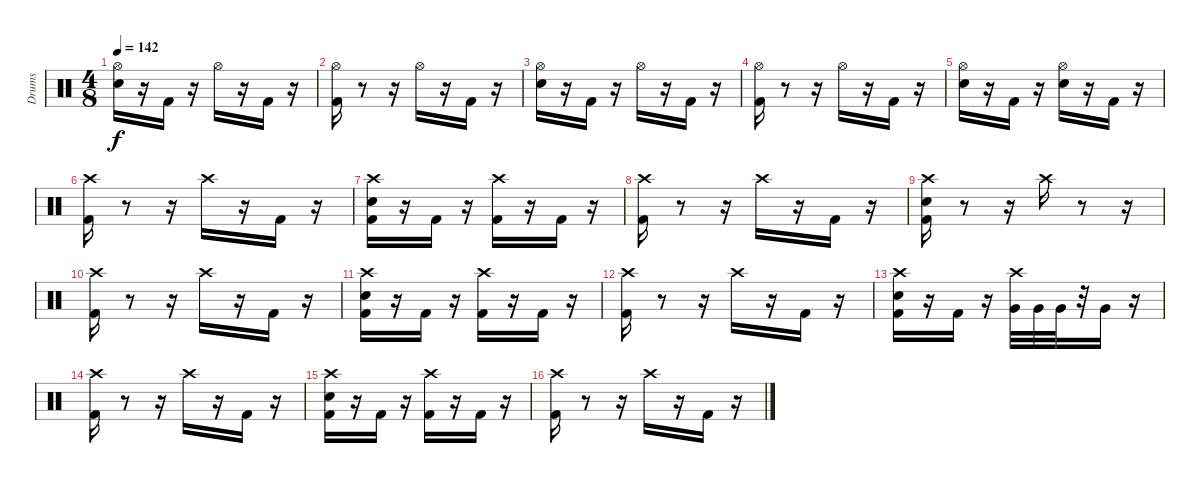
\track ("Drums" "Drums") {instrument percussion}
\staff {score}
\articulation defaults
\ts (4 8)
\tempo 142
\clef neutral
\ks c
("Electric Snare (hit)" "Hi-Hat (open)").16{dy f} r.16 "Kick (hit) 2".16 r.16 "Hi-Hat (open)".16 r.16 "Kick (hit) 2".16 r.16 |
("Kick (hit) 2" "Hi-Hat (open)").16 r.8 r.16 "Hi-Hat (open)".16 r.16 "Kick (hit) 2".16 r.16 |
("Electric Snare (hit)" "Hi-Hat (open)").16 r.16 "Kick (hit) 2".16 r.16 "Hi-Hat (open)".16 r.16 "Kick (hit) 2".16 r.16 |
("Kick (hit) 2" "Hi-Hat (open)").16 r.8 r.16 "Hi-Hat (open)".16 r.16 "Kick (hit) 2".16 r.16 |
("Electric Snare (hit)" "Hi-Hat (open)").16 r.16 "Kick (hit) 2".16 r.16 ("Hi-Hat (open)" "Electric Snare (hit)").16 r.16 "Kick (hit) 2".16 r.16 |
("Kick (hit) 2" "Crash high (hit)").16 r.8 r.16 "Crash high (hit)".16 r.16 "Kick (hit) 2".16 r.16 |
("Electric Snare (hit)" "Kick (hit) 2" "Crash high (hit)").16 r.16 "Kick (hit) 2".16 r.16 ("Crash high (hit)" "Kick (hit) 2").16 r.16 "Kick (hit) 2".16 r.16 |
("Kick (hit) 2" "Crash high (hit)").16 r.8 r.16 "Crash high (hit)".16 r.16 "Kick (hit) 2".16 r.16 |
("Kick (hit) 2" "Crash high (hit)" "Electric Snare (hit)").16 r.8 r.16 "Crash high (hit)".16 r.8 r.16 |
("Kick (hit) 2" "Crash high (hit)").16 r.8 r.16 "Crash high (hit)".16 r.16 "Kick (hit) 2".16 r.16 |
("Electric Snare (hit)" "Kick (hit) 2" "Crash high (hit)").16 r.16 "Kick (hit) 2".16 r.16 ("Crash high (hit)" "Kick (hit) 2").16 r.16 "Kick (hit) 2".16 r.16 |
("Kick (hit) 2" "Crash high (hit)").16 r.8 r.16 "Crash high (hit)".16 r.16 "Kick (hit) 2".16 r.16 |
("Kick (hit) 2" "Crash high (hit)" "Electric Snare (hit)").16 r.16 "Kick (hit) 2".16 r.16 ("Crash high (hit)" "Very Low Tom (hit)").32 "Very Low Tom (hit)".32 "Very Low Tom (hit)".32 r.32 "Very Low Tom (hit)".16 r.16 |
("Kick (hit) 2" "Crash high (hit)").16 r.8 r.16 "Crash high (hit)".16 r.16 "Kick (hit) 2".16 r.16 |
("Electric Snare (hit)" "Kick (hit) 2" "Crash high (hit)").16 r.16 "Kick (hit) 2".16 r.16 ("Crash high (hit)" "Kick (hit) 2").16 r.16 "Kick (hit) 2".16 r.16 |
("Kick (hit) 2" "Crash high (hit)").16 r.8 r.16 "Crash high (hit)".16 r.16 "Kick (hit) 2".16 r.16
